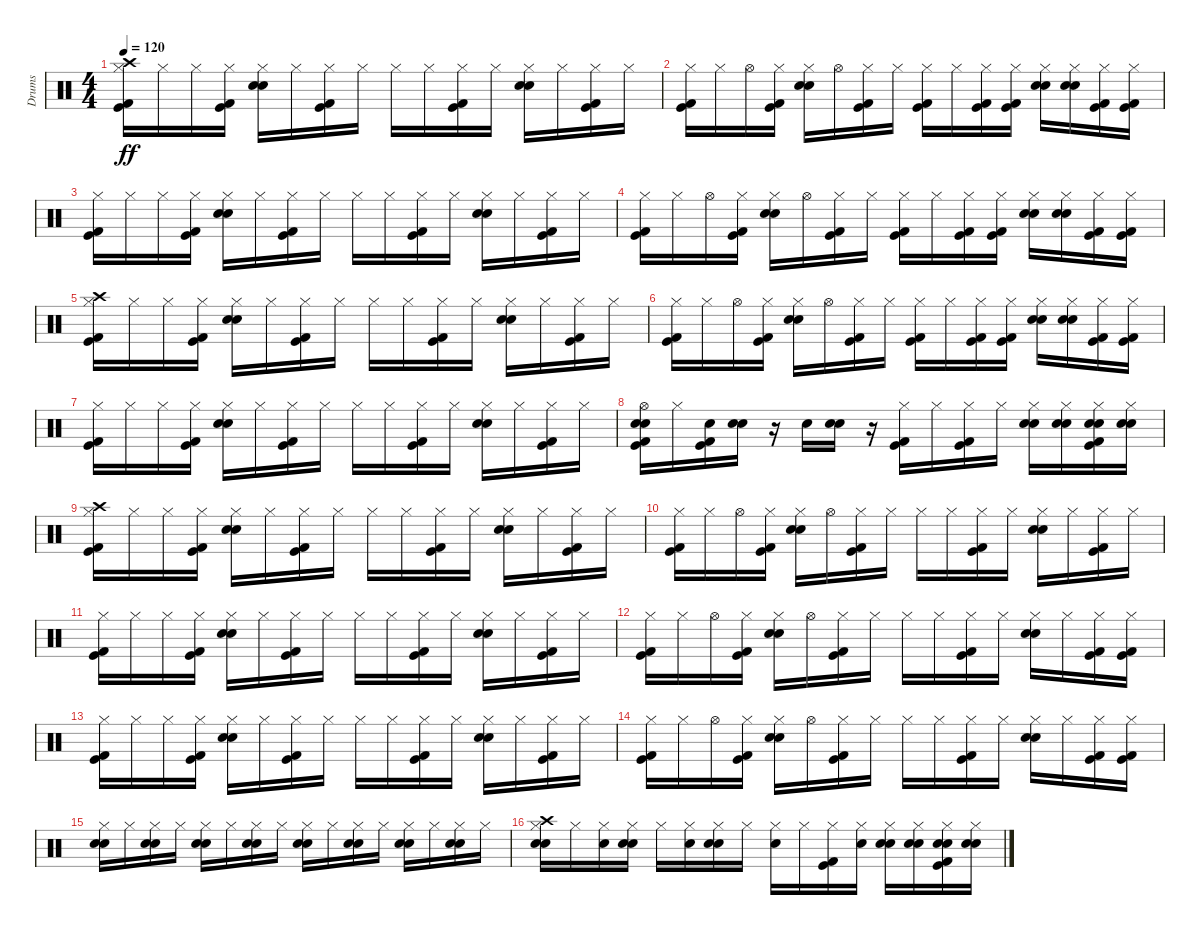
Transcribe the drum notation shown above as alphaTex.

\track ("Drums" "Drums") {instrument percussion}
\staff {score}
\articulation defaults
\ts (4 4)
\tempo 120
\clef neutral
\ks c
("Kick (hit)" "Kick (hit) 2" "Hi-Hat (closed)" "Crash high (hit)").16{dy ff} "Hi-Hat (closed)".16 "Hi-Hat (closed)".16 ("Kick (hit)" "Kick (hit) 2" "Hi-Hat (closed)").16 ("Snare (hit) 2" "Hand Clap (hit)" "Hi-Hat (closed)").16 "Hi-Hat (closed)".16 ("Kick (hit)" "Kick (hit) 2" "Hi-Hat (closed)").16 "Hi-Hat (closed)".16 "Hi-Hat (closed)".16 "Hi-Hat (closed)".16 ("Kick (hit)" "Kick (hit) 2" "Hi-Hat (closed)").16 "Hi-Hat (closed)".16 ("Snare (hit) 2" "Hand Clap (hit)" "Hi-Hat (closed)").16 "Hi-Hat (closed)".16 ("Kick (hit)" "Kick (hit) 2" "Hi-Hat (closed)").16 "Hi-Hat (closed)".16 |
("Kick (hit)" "Kick (hit) 2" "Hi-Hat (closed)").16 "Hi-Hat (closed)".16 "Hi-Hat (open)".16 ("Kick (hit)" "Kick (hit) 2" "Hi-Hat (closed)").16 ("Snare (hit) 2" "Hand Clap (hit)" "Hi-Hat (closed)").16 "Hi-Hat (open)".16 ("Kick (hit)" "Kick (hit) 2" "Hi-Hat (closed)").16 "Hi-Hat (closed)".16 ("Kick (hit)" "Kick (hit) 2" "Hi-Hat (closed)").16 "Hi-Hat (closed)".16 ("Kick (hit)" "Kick (hit) 2" "Hi-Hat (closed)").16 ("Kick (hit)" "Kick (hit) 2" "Hi-Hat (closed)").16 ("Snare (hit) 2" "Hand Clap (hit)" "Hi-Hat (closed)").16 ("Snare (hit) 2" "Hand Clap (hit)" "Hi-Hat (closed)").16 ("Kick (hit)" "Kick (hit) 2" "Hi-Hat (closed)").16 ("Kick (hit)" "Kick (hit) 2" "Hi-Hat (closed)").16 |
("Kick (hit)" "Kick (hit) 2" "Hi-Hat (closed)").16 "Hi-Hat (closed)".16 "Hi-Hat (closed)".16 ("Kick (hit)" "Kick (hit) 2" "Hi-Hat (closed)").16 ("Snare (hit) 2" "Hand Clap (hit)" "Hi-Hat (closed)").16 "Hi-Hat (closed)".16 ("Kick (hit)" "Kick (hit) 2" "Hi-Hat (closed)").16 "Hi-Hat (closed)".16 "Hi-Hat (closed)".16 "Hi-Hat (closed)".16 ("Kick (hit)" "Kick (hit) 2" "Hi-Hat (closed)").16 "Hi-Hat (closed)".16 ("Snare (hit) 2" "Hand Clap (hit)" "Hi-Hat (closed)").16 "Hi-Hat (closed)".16 ("Kick (hit)" "Kick (hit) 2" "Hi-Hat (closed)").16 "Hi-Hat (closed)".16 |
("Kick (hit)" "Kick (hit) 2" "Hi-Hat (closed)").16 "Hi-Hat (closed)".16 "Hi-Hat (open)".16 ("Kick (hit)" "Kick (hit) 2" "Hi-Hat (closed)").16 ("Snare (hit) 2" "Hand Clap (hit)" "Hi-Hat (closed)").16 "Hi-Hat (open)".16 ("Kick (hit)" "Kick (hit) 2" "Hi-Hat (closed)").16 "Hi-Hat (closed)".16 ("Kick (hit)" "Kick (hit) 2" "Hi-Hat (closed)").16 "Hi-Hat (closed)".16 ("Kick (hit)" "Kick (hit) 2" "Hi-Hat (closed)").16 ("Kick (hit)" "Kick (hit) 2" "Hi-Hat (closed)").16 ("Snare (hit) 2" "Hand Clap (hit)" "Hi-Hat (closed)").16 ("Snare (hit) 2" "Hand Clap (hit)" "Hi-Hat (closed)").16 ("Kick (hit)" "Kick (hit) 2" "Hi-Hat (closed)").16 ("Kick (hit)" "Kick (hit) 2" "Hi-Hat (closed)").16 |
("Kick (hit)" "Kick (hit) 2" "Hi-Hat (closed)" "Crash high (hit)").16 "Hi-Hat (closed)".16 "Hi-Hat (closed)".16 ("Kick (hit)" "Kick (hit) 2" "Hi-Hat (closed)").16 ("Snare (hit) 2" "Hand Clap (hit)" "Hi-Hat (closed)").16 "Hi-Hat (closed)".16 ("Kick (hit)" "Kick (hit) 2" "Hi-Hat (closed)").16 "Hi-Hat (closed)".16 "Hi-Hat (closed)".16 "Hi-Hat (closed)".16 ("Kick (hit)" "Kick (hit) 2" "Hi-Hat (closed)").16 "Hi-Hat (closed)".16 ("Snare (hit) 2" "Hand Clap (hit)" "Hi-Hat (closed)").16 "Hi-Hat (closed)".16 ("Kick (hit)" "Kick (hit) 2" "Hi-Hat (closed)").16 "Hi-Hat (closed)".16 |
("Kick (hit)" "Kick (hit) 2" "Hi-Hat (closed)").16 "Hi-Hat (closed)".16 "Hi-Hat (open)".16 ("Kick (hit)" "Kick (hit) 2" "Hi-Hat (closed)").16 ("Snare (hit) 2" "Hand Clap (hit)" "Hi-Hat (closed)").16 "Hi-Hat (open)".16 ("Kick (hit)" "Kick (hit) 2" "Hi-Hat (closed)").16 "Hi-Hat (closed)".16 ("Kick (hit)" "Kick (hit) 2" "Hi-Hat (closed)").16 "Hi-Hat (closed)".16 ("Kick (hit)" "Kick (hit) 2" "Hi-Hat (closed)").16 ("Kick (hit)" "Kick (hit) 2" "Hi-Hat (closed)").16 ("Snare (hit) 2" "Hand Clap (hit)" "Hi-Hat (closed)").16 ("Snare (hit) 2" "Hand Clap (hit)" "Hi-Hat (closed)").16 ("Kick (hit)" "Kick (hit) 2" "Hi-Hat (closed)").16 ("Kick (hit)" "Kick (hit) 2" "Hi-Hat (closed)").16 |
("Kick (hit)" "Kick (hit) 2" "Hi-Hat (closed)").16 "Hi-Hat (closed)".16 "Hi-Hat (closed)".16 ("Kick (hit)" "Kick (hit) 2" "Hi-Hat (closed)").16 ("Snare (hit) 2" "Hand Clap (hit)" "Hi-Hat (closed)").16 "Hi-Hat (closed)".16 ("Kick (hit)" "Kick (hit) 2" "Hi-Hat (closed)").16 "Hi-Hat (closed)".16 "Hi-Hat (closed)".16 "Hi-Hat (closed)".16 ("Kick (hit)" "Kick (hit) 2" "Hi-Hat (closed)").16 "Hi-Hat (closed)".16 ("Snare (hit) 2" "Hand Clap (hit)" "Hi-Hat (closed)").16 "Hi-Hat (closed)".16 ("Kick (hit)" "Kick (hit) 2" "Hi-Hat (closed)").16 "Hi-Hat (closed)".16 |
("Kick (hit)" "Kick (hit) 2" "Snare (hit) 2" "Hand Clap (hit)" "Hi-Hat (open)").16 "Hi-Hat (closed)".16 ("Kick (hit)" "Kick (hit) 2" "Hand Clap (hit)").16 ("Snare (hit) 2" "Hand Clap (hit)").16 r.16 "Hand Clap (hit)".16 ("Snare (hit) 2" "Hand Clap (hit)").16 r.16 ("Kick (hit)" "Kick (hit) 2" "Hi-Hat (closed)").16 "Hi-Hat (closed)".16 ("Kick (hit)" "Kick (hit) 2" "Hi-Hat (closed)").16 "Hi-Hat (closed)".16 ("Snare (hit) 2" "Hand Clap (hit)" "Hi-Hat (closed)").16 ("Snare (hit) 2" "Hand Clap (hit)" "Hi-Hat (closed)").16 ("Kick (hit)" "Kick (hit) 2" "Snare (hit) 2" "Hand Clap (hit)" "Hi-Hat (closed)").16 ("Snare (hit) 2" "Hand Clap (hit)" "Hi-Hat (closed)").16 |
("Kick (hit)" "Kick (hit) 2" "Hi-Hat (closed)" "Crash high (hit)").16 "Hi-Hat (closed)".16 "Hi-Hat (closed)".16 ("Kick (hit)" "Kick (hit) 2" "Hi-Hat (closed)").16 ("Snare (hit) 2" "Hand Clap (hit)" "Hi-Hat (closed)").16 "Hi-Hat (closed)".16 ("Kick (hit)" "Kick (hit) 2" "Hi-Hat (closed)").16 "Hi-Hat (closed)".16 "Hi-Hat (closed)".16 "Hi-Hat (closed)".16 ("Kick (hit)" "Kick (hit) 2" "Hi-Hat (closed)").16 "Hi-Hat (closed)".16 ("Snare (hit) 2" "Hand Clap (hit)" "Hi-Hat (closed)").16 "Hi-Hat (closed)".16 ("Kick (hit)" "Kick (hit) 2" "Hi-Hat (closed)").16 "Hi-Hat (closed)".16 |
("Kick (hit)" "Kick (hit) 2" "Hi-Hat (closed)").16 "Hi-Hat (closed)".16 "Hi-Hat (open)".16 ("Kick (hit)" "Kick (hit) 2" "Hi-Hat (closed)").16 ("Snare (hit) 2" "Hand Clap (hit)" "Hi-Hat (closed)").16 "Hi-Hat (open)".16 ("Kick (hit)" "Kick (hit) 2" "Hi-Hat (closed)").16 "Hi-Hat (closed)".16 "Hi-Hat (closed)".16 "Hi-Hat (closed)".16 ("Kick (hit)" "Kick (hit) 2" "Hi-Hat (closed)").16 "Hi-Hat (closed)".16 ("Snare (hit) 2" "Hand Clap (hit)" "Hi-Hat (closed)").16 "Hi-Hat (closed)".16 ("Kick (hit)" "Kick (hit) 2" "Hi-Hat (closed)").16 "Hi-Hat (closed)".16 |
("Kick (hit)" "Kick (hit) 2" "Hi-Hat (closed)").16 "Hi-Hat (closed)".16 "Hi-Hat (closed)".16 ("Kick (hit)" "Kick (hit) 2" "Hi-Hat (closed)").16 ("Snare (hit) 2" "Hand Clap (hit)" "Hi-Hat (closed)").16 "Hi-Hat (closed)".16 ("Kick (hit)" "Kick (hit) 2" "Hi-Hat (closed)").16 "Hi-Hat (closed)".16 "Hi-Hat (closed)".16 "Hi-Hat (closed)".16 ("Kick (hit)" "Kick (hit) 2" "Hi-Hat (closed)").16 "Hi-Hat (closed)".16 ("Snare (hit) 2" "Hand Clap (hit)" "Hi-Hat (closed)").16 "Hi-Hat (closed)".16 ("Kick (hit)" "Kick (hit) 2" "Hi-Hat (closed)").16 "Hi-Hat (closed)".16 |
("Kick (hit)" "Kick (hit) 2" "Hi-Hat (closed)").16 "Hi-Hat (closed)".16 "Hi-Hat (open)".16 ("Kick (hit)" "Kick (hit) 2" "Hi-Hat (closed)").16 ("Snare (hit) 2" "Hand Clap (hit)" "Hi-Hat (closed)").16 "Hi-Hat (open)".16 ("Kick (hit)" "Kick (hit) 2" "Hi-Hat (closed)").16 "Hi-Hat (closed)".16 "Hi-Hat (closed)".16 "Hi-Hat (closed)".16 ("Kick (hit)" "Kick (hit) 2" "Hi-Hat (closed)").16 "Hi-Hat (closed)".16 ("Snare (hit) 2" "Hand Clap (hit)" "Hi-Hat (closed)").16 "Hi-Hat (closed)".16 ("Kick (hit)" "Kick (hit) 2" "Hi-Hat (closed)").16 ("Kick (hit)" "Kick (hit) 2" "Hi-Hat (closed)").16 |
("Kick (hit)" "Kick (hit) 2" "Hi-Hat (closed)").16 "Hi-Hat (closed)".16 "Hi-Hat (closed)".16 ("Kick (hit)" "Kick (hit) 2" "Hi-Hat (closed)").16 ("Snare (hit) 2" "Hand Clap (hit)" "Hi-Hat (closed)").16 "Hi-Hat (closed)".16 ("Kick (hit)" "Kick (hit) 2" "Hi-Hat (closed)").16 "Hi-Hat (closed)".16 "Hi-Hat (closed)".16 "Hi-Hat (closed)".16 ("Kick (hit)" "Kick (hit) 2" "Hi-Hat (closed)").16 "Hi-Hat (closed)".16 ("Snare (hit) 2" "Hand Clap (hit)" "Hi-Hat (closed)").16 "Hi-Hat (closed)".16 ("Kick (hit)" "Kick (hit) 2" "Hi-Hat (closed)").16 "Hi-Hat (closed)".16 |
("Kick (hit)" "Kick (hit) 2" "Hi-Hat (closed)").16 "Hi-Hat (closed)".16 "Hi-Hat (open)".16 ("Kick (hit)" "Kick (hit) 2" "Hi-Hat (closed)").16 ("Snare (hit) 2" "Hand Clap (hit)" "Hi-Hat (closed)").16 "Hi-Hat (open)".16 ("Kick (hit)" "Kick (hit) 2" "Hi-Hat (closed)").16 "Hi-Hat (closed)".16 "Hi-Hat (closed)".16 "Hi-Hat (closed)".16 ("Kick (hit)" "Kick (hit) 2" "Hi-Hat (closed)").16 "Hi-Hat (closed)".16 ("Snare (hit) 2" "Hand Clap (hit)" "Hi-Hat (closed)").16 "Hi-Hat (closed)".16 ("Kick (hit)" "Kick (hit) 2" "Hi-Hat (closed)").16 ("Kick (hit)" "Kick (hit) 2" "Hi-Hat (closed)").16 |
("Snare (hit) 2" "Hand Clap (hit)" "Hi-Hat (closed)").16 "Hi-Hat (closed)".16 ("Snare (hit) 2" "Hand Clap (hit)" "Hi-Hat (closed)").16 "Hi-Hat (closed)".16 ("Snare (hit) 2" "Hand Clap (hit)" "Hi-Hat (closed)").16 "Hi-Hat (closed)".16 ("Snare (hit) 2" "Hand Clap (hit)" "Hi-Hat (closed)").16 "Hi-Hat (closed)".16 ("Snare (hit) 2" "Hand Clap (hit)" "Hi-Hat (closed)").16 "Hi-Hat (closed)".16 ("Snare (hit) 2" "Hand Clap (hit)" "Hi-Hat (closed)").16 "Hi-Hat (closed)".16 ("Snare (hit) 2" "Hand Clap (hit)" "Hi-Hat (closed)").16 "Hi-Hat (closed)".16 ("Snare (hit) 2" "Hand Clap (hit)" "Hi-Hat (closed)").16 "Hi-Hat (closed)".16 |
("Snare (hit) 2" "Hand Clap (hit)" "Hi-Hat (closed)" "Crash high (hit)").16 "Hi-Hat (closed)".16 ("Snare (hit) 2" "Hi-Hat (closed)").16 ("Snare (hit) 2" "Hand Clap (hit)" "Hi-Hat (closed)").16 "Hi-Hat (closed)".16 ("Snare (hit) 2" "Hi-Hat (closed)").16 ("Snare (hit) 2" "Hand Clap (hit)" "Hi-Hat (closed)").16 "Hi-Hat (closed)".16 ("Snare (hit) 2" "Hi-Hat (closed)").16 "Hi-Hat (closed)".16 ("Kick (hit)" "Kick (hit) 2" "Hi-Hat (closed)").16 ("Snare (hit) 2" "Hi-Hat (closed)").16 ("Snare (hit) 2" "Hand Clap (hit)" "Hi-Hat (closed)").16 ("Snare (hit) 2" "Hand Clap (hit)" "Hi-Hat (closed)").16 ("Kick (hit)" "Kick (hit) 2" "Snare (hit) 2" "Hand Clap (hit)" "Hi-Hat (closed)").16 ("Snare (hit) 2" "Hand Clap (hit)" "Hi-Hat (closed)").16
